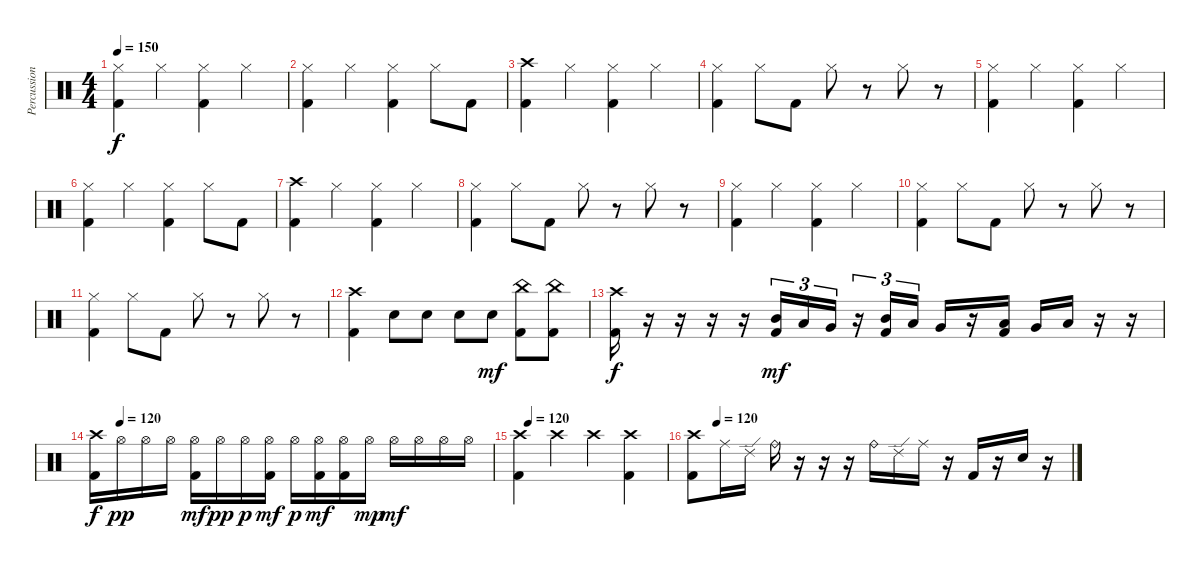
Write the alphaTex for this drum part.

\track ("Percussion" "Percussion") {instrument percussion}
\staff {score}
\articulation defaults
\ts (4 4)
\tempo 150
\clef neutral
\ks c
("Hi-Hat (closed)" "Kick (hit) 2").4{dy f} "Hi-Hat (closed)".4 ("Hi-Hat (closed)" "Kick (hit) 2").4 "Hi-Hat (closed)".4 |
("Hi-Hat (closed)" "Kick (hit) 2").4 "Hi-Hat (closed)".4 ("Hi-Hat (closed)" "Kick (hit) 2").4 "Hi-Hat (closed)".8 "Kick (hit) 2".8 |
("Crash high (hit)" "Kick (hit) 2").4 "Hi-Hat (closed)".4 ("Hi-Hat (closed)" "Kick (hit) 2").4 "Hi-Hat (closed)".4 |
("Hi-Hat (closed)" "Kick (hit) 2").4 "Hi-Hat (closed)".8 "Kick (hit) 2".8 "Hi-Hat (closed)".8 r.8 "Hi-Hat (closed)".8 r.8 |
("Hi-Hat (closed)" "Kick (hit) 2").4 "Hi-Hat (closed)".4 ("Hi-Hat (closed)" "Kick (hit) 2").4 "Hi-Hat (closed)".4 |
("Hi-Hat (closed)" "Kick (hit) 2").4 "Hi-Hat (closed)".4 ("Hi-Hat (closed)" "Kick (hit) 2").4 "Hi-Hat (closed)".8 "Kick (hit) 2".8 |
("Crash high (hit)" "Kick (hit) 2").4 "Hi-Hat (closed)".4 ("Hi-Hat (closed)" "Kick (hit) 2").4 "Hi-Hat (closed)".4 |
("Hi-Hat (closed)" "Kick (hit) 2").4 "Hi-Hat (closed)".8 "Kick (hit) 2".8 "Hi-Hat (closed)".8 r.8 "Hi-Hat (closed)".8 r.8 |
("Hi-Hat (closed)" "Kick (hit) 2").4 "Hi-Hat (closed)".4 ("Hi-Hat (closed)" "Kick (hit) 2").4 "Hi-Hat (closed)".4 |
("Hi-Hat (closed)" "Kick (hit) 2").4 "Hi-Hat (closed)".8 "Kick (hit) 2".8 "Hi-Hat (closed)".8 r.8 "Hi-Hat (closed)".8 r.8 |
("Hi-Hat (closed)" "Kick (hit) 2").4 "Hi-Hat (closed)".8 "Kick (hit) 2".8 "Hi-Hat (closed)".8 r.8 "Hi-Hat (closed)".8 r.8 |
("Crash high (hit)" "Kick (hit) 2").4 "Snare (hit) 2".8 "Snare (hit) 2".8 "Snare (hit) 2".8 "Snare (hit) 2".8{dy mf} ("China (hit)" "Kick (hit) 2").8 ("China (hit)" "Kick (hit) 2").8 |
("Crash high (hit)" "Kick (hit) 2").16{dy f} r.16 r.16 r.16 r.16 ("Mid Tom (hit)" "Kick (hit) 2").16{tu (3 2) dy mf} "Low Tom (hit)".16{tu (3 2)} "Very Low Tom (hit)".16{tu (3 2)} r.16{tu (3 2)} ("Mid Tom (hit)" "Kick (hit) 2").16{tu (3 2)} "Low Tom (hit)".16{tu (3 2)} "Very Low Tom (hit)".16 r.16 ("Low Tom (hit)" "Kick (hit) 2").16 "Very Low Tom (hit)".16 "Low Floor Tom (hit)".16 r.16 r.16 |
\tempo (120 0.0625)
("Crash high (hit)" "Kick (hit) 2").16{dy f} "Hi-Hat (open)".16{dy pp} "Hi-Hat (open)".16 "Hi-Hat (open)".16 ("Hi-Hat (open)" "Kick (hit) 2").16{dy mf} "Hi-Hat (open)".16{dy pp} "Hi-Hat (open)".16{dy p} ("Hi-Hat (open)" "Kick (hit) 2").16{dy mf} "Hi-Hat (open)".16{dy p} ("Hi-Hat (open)" "Kick (hit) 2").16{dy mf} ("Hi-Hat (open)" "Kick (hit) 2").16 "Hi-Hat (open)".16{dy mp} "Hi-Hat (open)".16{dy mf} "Hi-Hat (open)".16 "Hi-Hat (open)".16 "Hi-Hat (open)".16 |
\tempo (120 0.0625)
("Crash high (hit)" "Kick (hit) 2").4 "Crash high (hit)".4 "Crash high (hit)".4 ("Crash high (hit)" "Kick (hit) 2").4 |
\tempo (120 0.0625)
("Crash high (hit)" "Kick (hit) 2").8 "Ride (middle)".16 "Ride (edge) 2".16 "Ride (bell)".16 r.16 r.16 r.16 "Ride (bell)".16 "Ride (edge) 2".16 "Ride (middle)".16 r.16 "Kick (hit) 2".16 r.16 "Snare (hit) 2".16 r.16
